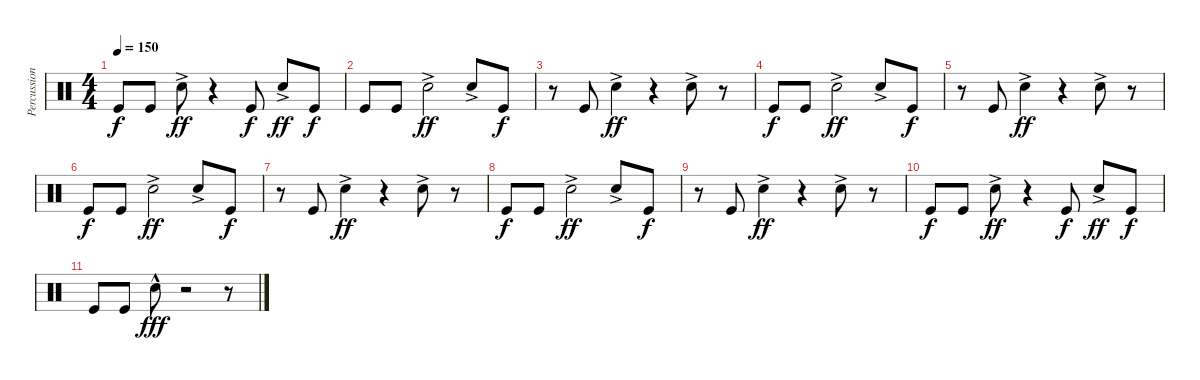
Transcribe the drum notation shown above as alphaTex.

\track ("Percussion" "Percussion") {instrument percussion}
\staff {score}
\articulation defaults
\ts (4 4)
\tempo 150
\clef neutral
\ks c "Kick (hit)".8{dy f} "Kick (hit)".8 "Snare (hit) 2"{ac}.8{dy ff}
r.4 "Kick (hit)".8{dy f} "Snare (hit) 2"{ac}.8{dy ff} "Kick (hit)".8{dy f} |
"Kick (hit)".8 "Kick (hit)".8 "Snare (hit) 2"{ac}.2{dy ff} "Snare (hit) 2"{ac}.8 "Kick (hit)".8{dy f} |
r.8 "Kick (hit)".8 "Snare (hit) 2"{ac}.4{dy ff} r.4 "Snare (hit) 2"{ac}.8 r.8 |
"Kick (hit)".8{dy f} "Kick (hit)".8 "Snare (hit) 2"{ac}.2{dy ff} "Snare (hit) 2"{ac}.8 "Kick (hit)".8{dy f} |
r.8 "Kick (hit)".8 "Snare (hit) 2"{ac}.4{dy ff} r.4 "Snare (hit) 2"{ac}.8 r.8 |
"Kick (hit)".8{dy f} "Kick (hit)".8 "Snare (hit) 2"{ac}.2{dy ff} "Snare (hit) 2"{ac}.8 "Kick (hit)".8{dy f} |
r.8 "Kick (hit)".8 "Snare (hit) 2"{ac}.4{dy ff} r.4 "Snare (hit) 2"{ac}.8 r.8 |
"Kick (hit)".8{dy f} "Kick (hit)".8 "Snare (hit) 2"{ac}.2{dy ff} "Snare (hit) 2"{ac}.8 "Kick (hit)".8{dy f} |
r.8 "Kick (hit)".8 "Snare (hit) 2"{ac}.4{dy ff} r.4 "Snare (hit) 2"{ac}.8 r.8 |
"Kick (hit)".8{dy f} "Kick (hit)".8 "Snare (hit) 2"{ac}.8{dy ff} r.4 "Kick (hit)".8{dy f} "Snare (hit) 2"{ac}.8{dy ff} "Kick (hit)".8{dy f} |
"Kick (hit)".8 "Kick (hit)".8 "Snare (hit) 2"{hac}.8{dy fff} r.2 r.8
